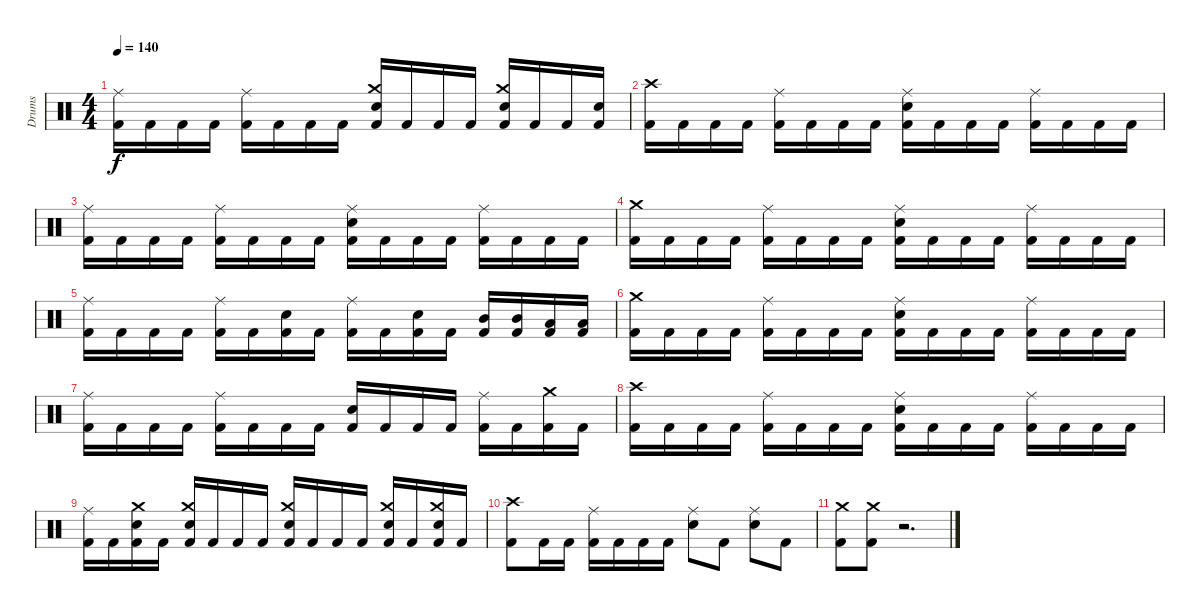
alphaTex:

\track ("Drums" "Drums") {instrument percussion}
\staff {score}
\articulation defaults
\ts (4 4)
\tempo 140
\clef neutral
\ks c
("Ride (middle)" "Kick (hit) 2").16{dy f} "Kick (hit) 2".16 "Kick (hit) 2".16 "Kick (hit) 2".16 ("Ride (middle)" "Kick (hit) 2").16 "Kick (hit) 2".16 "Kick (hit) 2".16 "Kick (hit) 2".16 ("Crash medium (hit)" "Electric Snare (hit)" "Kick (hit) 2").16 "Kick (hit) 2".16 "Kick (hit) 2".16 "Kick (hit) 2".16 ("Crash medium (hit)" "Electric Snare (hit)" "Kick (hit) 2").16 "Kick (hit) 2".16 "Kick (hit) 2".16 ("Electric Snare (hit)" "Kick (hit) 2").16 |
("Crash high (hit)" "Kick (hit) 2").16 "Kick (hit) 2".16 "Kick (hit) 2".16 "Kick (hit) 2".16 ("Ride (middle)" "Kick (hit) 2").16 "Kick (hit) 2".16 "Kick (hit) 2".16 "Kick (hit) 2".16 ("Ride (middle)" "Electric Snare (hit)" "Kick (hit) 2").16 "Kick (hit) 2".16 "Kick (hit) 2".16 "Kick (hit) 2".16 ("Ride (middle)" "Kick (hit) 2").16 "Kick (hit) 2".16 "Kick (hit) 2".16 "Kick (hit) 2".16 |
("Ride (middle)" "Kick (hit) 2").16 "Kick (hit) 2".16 "Kick (hit) 2".16 "Kick (hit) 2".16 ("Ride (middle)" "Kick (hit) 2").16 "Kick (hit) 2".16 "Kick (hit) 2".16 "Kick (hit) 2".16 ("Ride (middle)" "Electric Snare (hit)" "Kick (hit) 2").16 "Kick (hit) 2".16 "Kick (hit) 2".16 "Kick (hit) 2".16 ("Ride (middle)" "Kick (hit) 2").16 "Kick (hit) 2".16 "Kick (hit) 2".16 "Kick (hit) 2".16 |
("Crash medium (hit)" "Kick (hit) 2").16 "Kick (hit) 2".16 "Kick (hit) 2".16 "Kick (hit) 2".16 ("Ride (middle)" "Kick (hit) 2").16 "Kick (hit) 2".16 "Kick (hit) 2".16 "Kick (hit) 2".16 ("Ride (middle)" "Electric Snare (hit)" "Kick (hit) 2").16 "Kick (hit) 2".16 "Kick (hit) 2".16 "Kick (hit) 2".16 ("Ride (middle)" "Kick (hit) 2").16 "Kick (hit) 2".16 "Kick (hit) 2".16 "Kick (hit) 2".16 |
("Ride (middle)" "Kick (hit) 2").16 "Kick (hit) 2".16 "Kick (hit) 2".16 "Kick (hit) 2".16 ("Ride (middle)" "Kick (hit) 2").16 "Kick (hit) 2".16 ("Electric Snare (hit)" "Kick (hit) 2").16 "Kick (hit) 2".16 ("Ride (middle)" "Kick (hit) 2").16 "Kick (hit) 2".16 ("Electric Snare (hit)" "Kick (hit) 2").16 "Kick (hit) 2".16 ("Mid Tom (hit)" "Kick (hit) 2").16 ("Mid Tom (hit)" "Kick (hit) 2").16 ("Low Tom (hit)" "Kick (hit) 2").16 ("Low Tom (hit)" "Kick (hit) 2").16 |
("Crash medium (hit)" "Kick (hit) 2").16 "Kick (hit) 2".16 "Kick (hit) 2".16 "Kick (hit) 2".16 ("Ride (middle)" "Kick (hit) 2").16 "Kick (hit) 2".16 "Kick (hit) 2".16 "Kick (hit) 2".16 ("Ride (middle)" "Electric Snare (hit)" "Kick (hit) 2").16 "Kick (hit) 2".16 "Kick (hit) 2".16 "Kick (hit) 2".16 ("Ride (middle)" "Kick (hit) 2").16 "Kick (hit) 2".16 "Kick (hit) 2".16 "Kick (hit) 2".16 |
("Ride (middle)" "Kick (hit) 2").16 "Kick (hit) 2".16 "Kick (hit) 2".16 "Kick (hit) 2".16 ("Ride (middle)" "Kick (hit) 2").16 "Kick (hit) 2".16 "Kick (hit) 2".16 "Kick (hit) 2".16 ("Electric Snare (hit)" "Kick (hit) 2").16 "Kick (hit) 2".16 "Kick (hit) 2".16 "Kick (hit) 2".16 ("Ride (middle)" "Kick (hit) 2").16 "Kick (hit) 2".16 ("Crash medium (hit)" "Kick (hit) 2").16 "Kick (hit) 2".16 |
("Crash high (hit)" "Kick (hit) 2").16 "Kick (hit) 2".16 "Kick (hit) 2".16 "Kick (hit) 2".16 ("Ride (middle)" "Kick (hit) 2").16 "Kick (hit) 2".16 "Kick (hit) 2".16 "Kick (hit) 2".16 ("Ride (middle)" "Electric Snare (hit)" "Kick (hit) 2").16 "Kick (hit) 2".16 "Kick (hit) 2".16 "Kick (hit) 2".16 ("Ride (middle)" "Kick (hit) 2").16 "Kick (hit) 2".16 "Kick (hit) 2".16 "Kick (hit) 2".16 |
("Ride (middle)" "Kick (hit) 2").16 "Kick (hit) 2".16 ("Crash medium (hit)" "Electric Snare (hit)" "Kick (hit) 2").16 "Kick (hit) 2".16 ("Crash medium (hit)" "Electric Snare (hit)" "Kick (hit) 2").16 "Kick (hit) 2".16 "Kick (hit) 2".16 "Kick (hit) 2".16 ("Crash medium (hit)" "Electric Snare (hit)" "Kick (hit) 2").16 "Kick (hit) 2".16 "Kick (hit) 2".16 "Kick (hit) 2".16 ("Crash medium (hit)" "Electric Snare (hit)" "Kick (hit) 2").16 "Kick (hit) 2".16 ("Crash medium (hit)" "Electric Snare (hit)" "Kick (hit) 2").16 "Kick (hit) 2".16 |
("Crash high (hit)" "Kick (hit) 2").8 "Kick (hit) 2".16 "Kick (hit) 2".16 ("Ride (middle)" "Kick (hit) 2").16 "Kick (hit) 2".16 "Kick (hit) 2".16 "Kick (hit) 2".16 ("Ride (middle)" "Electric Snare (hit)").8 "Kick (hit) 2".8 ("Ride (middle)" "Electric Snare (hit)").8 "Kick (hit) 2".8 |
("Crash medium (hit)" "Kick (hit) 2").8 ("Crash medium (hit)" "Kick (hit) 2").8 r.2{d}
